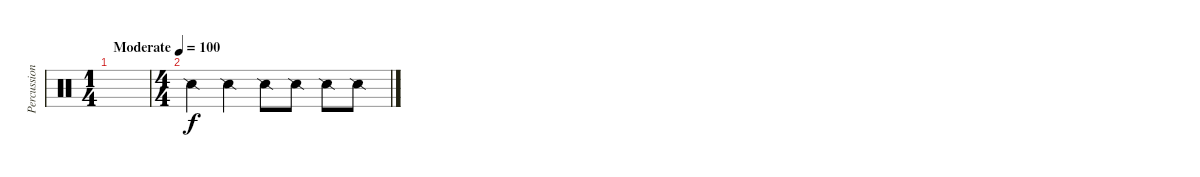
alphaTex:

\track ("Percussioni" "Percussion") {instrument percussion}
\staff {score}
\articulation defaults
\ts (1 4)
\tempo (100 "Moderate")
\clef neutral
\ks c
|
\ts (4 4)
"Snare (side stick) 2".4 "Snare (side stick) 2".4 "Snare (side stick) 2".8 "Snare (side stick) 2".8 "Snare (side stick) 2".8 "Snare (side stick) 2".8
